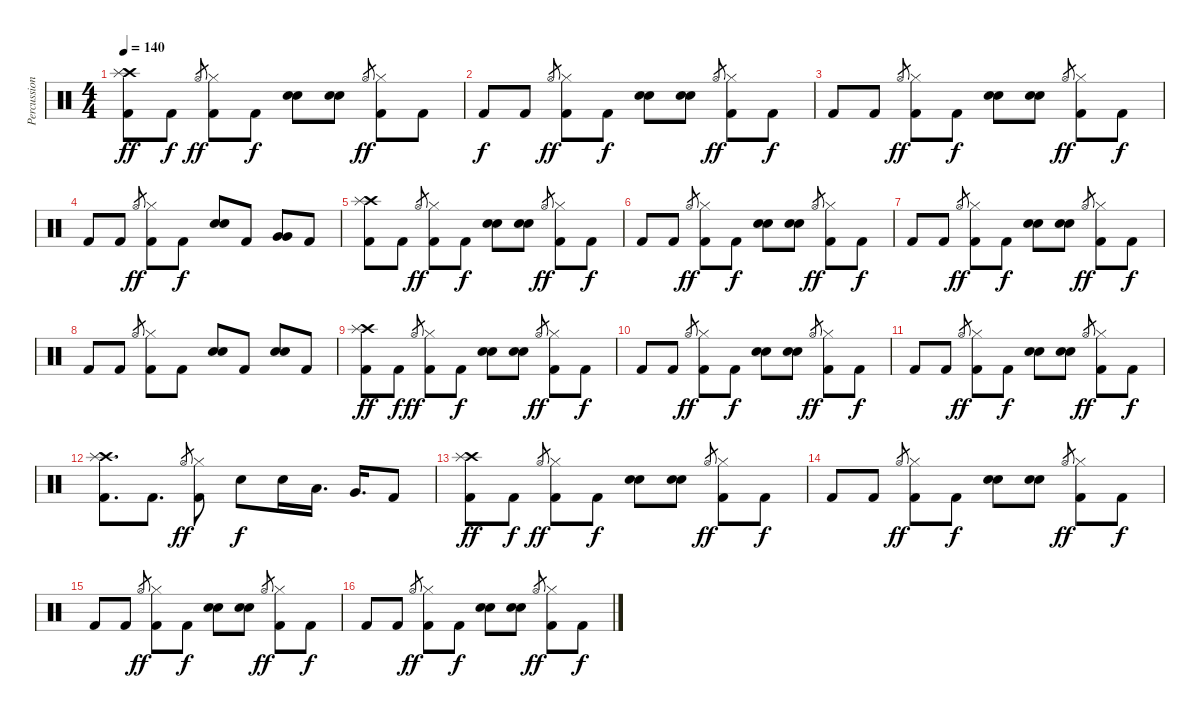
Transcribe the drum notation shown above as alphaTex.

\track ("Percussion" "Percussion") {instrument percussion}
\staff {score}
\articulation defaults
\ts (4 4)
\tempo 140
\clef neutral
\ks c
("Crash high (hit)" "Splash (hit)" "Kick (hit) 2").8{dy ff} "Kick (hit) 2".8{dy f} "Hi-Hat (open)".8{gr dy ff} ("Hi-Hat (closed)" "Kick (hit) 2").8 "Kick (hit) 2".8{dy f} ("Electric Snare (hit)" "Electric Snare (hit)").8 ("Electric Snare (hit)" "Electric Snare (hit)").8 "Hi-Hat (open)".8{gr dy ff} ("Hi-Hat (closed)" "Kick (hit) 2").8 "Kick (hit) 2".8 |
"Kick (hit) 2".8{dy f} "Kick (hit) 2".8 "Hi-Hat (open)".8{gr dy ff} ("Hi-Hat (closed)" "Kick (hit) 2").8 "Kick (hit) 2".8{dy f} ("Electric Snare (hit)" "Electric Snare (hit)").8 ("Electric Snare (hit)" "Electric Snare (hit)").8 "Hi-Hat (open)".8{gr dy ff} ("Hi-Hat (closed)" "Kick (hit) 2").8 "Kick (hit) 2".8{dy f} |
"Kick (hit) 2".8 "Kick (hit) 2".8 "Hi-Hat (open)".8{gr dy ff} ("Hi-Hat (closed)" "Kick (hit) 2").8 "Kick (hit) 2".8{dy f} ("Electric Snare (hit)" "Electric Snare (hit)").8 ("Electric Snare (hit)" "Electric Snare (hit)").8 "Hi-Hat (open)".8{gr dy ff} ("Hi-Hat (closed)" "Kick (hit) 2").8 "Kick (hit) 2".8{dy f} |
"Kick (hit) 2".8 "Kick (hit) 2".8 "Hi-Hat (open)".8{gr dy ff} ("Hi-Hat (closed)" "Kick (hit) 2").8 "Kick (hit) 2".8{dy f} ("Electric Snare (hit)" "Electric Snare (hit)").8 "Kick (hit) 2".8 ("Very Low Tom (hit)" "Very Low Tom (hit)").8 "Kick (hit) 2".8 |
("Crash high (hit)" "Splash (hit)" "Kick (hit) 2").8 "Kick (hit) 2".8 "Hi-Hat (open)".8{gr dy ff} ("Hi-Hat (closed)" "Kick (hit) 2").8 "Kick (hit) 2".8{dy f} ("Electric Snare (hit)" "Electric Snare (hit)").8 ("Electric Snare (hit)" "Electric Snare (hit)").8 "Hi-Hat (open)".8{gr dy ff} ("Hi-Hat (closed)" "Kick (hit) 2").8 "Kick (hit) 2".8{dy f} |
"Kick (hit) 2".8 "Kick (hit) 2".8 "Hi-Hat (open)".8{gr dy ff} ("Hi-Hat (closed)" "Kick (hit) 2").8 "Kick (hit) 2".8{dy f} ("Electric Snare (hit)" "Electric Snare (hit)").8 ("Electric Snare (hit)" "Electric Snare (hit)").8 "Hi-Hat (open)".8{gr dy ff} ("Hi-Hat (closed)" "Kick (hit) 2").8 "Kick (hit) 2".8{dy f} |
"Kick (hit) 2".8 "Kick (hit) 2".8 "Hi-Hat (open)".8{gr dy ff} ("Hi-Hat (closed)" "Kick (hit) 2").8 "Kick (hit) 2".8{dy f} ("Electric Snare (hit)" "Electric Snare (hit)").8 ("Electric Snare (hit)" "Electric Snare (hit)").8 "Hi-Hat (open)".8{gr dy ff} ("Hi-Hat (closed)" "Kick (hit) 2").8 "Kick (hit) 2".8{dy f} |
"Kick (hit) 2".8 "Kick (hit) 2".8 "Hi-Hat (open)".8{gr} ("Hi-Hat (closed)" "Kick (hit) 2").8 "Kick (hit) 2".8 ("Electric Snare (hit)" "Electric Snare (hit)").8 "Kick (hit) 2".8 ("Electric Snare (hit)" "Electric Snare (hit)").8 "Kick (hit) 2".8 |
("Crash high (hit)" "Splash (hit)" "Kick (hit) 2").8{dy ff} "Kick (hit) 2".8{dy f} "Hi-Hat (open)".8{gr dy ff} ("Hi-Hat (closed)" "Kick (hit) 2").8 "Kick (hit) 2".8{dy f} ("Electric Snare (hit)" "Electric Snare (hit)").8 ("Electric Snare (hit)" "Electric Snare (hit)").8 "Hi-Hat (open)".8{gr dy ff} ("Hi-Hat (closed)" "Kick (hit) 2").8 "Kick (hit) 2".8{dy f} |
"Kick (hit) 2".8 "Kick (hit) 2".8 "Hi-Hat (open)".8{gr dy ff} ("Hi-Hat (closed)" "Kick (hit) 2").8 "Kick (hit) 2".8{dy f} ("Electric Snare (hit)" "Electric Snare (hit)").8 ("Electric Snare (hit)" "Electric Snare (hit)").8 "Hi-Hat (open)".8{gr dy ff} ("Hi-Hat (closed)" "Kick (hit) 2").8 "Kick (hit) 2".8{dy f} |
"Kick (hit) 2".8 "Kick (hit) 2".8 "Hi-Hat (open)".8{gr dy ff} ("Hi-Hat (closed)" "Kick (hit) 2").8 "Kick (hit) 2".8{dy f} ("Electric Snare (hit)" "Electric Snare (hit)").8 ("Electric Snare (hit)" "Electric Snare (hit)").8 "Hi-Hat (open)".8{gr dy ff} ("Hi-Hat (closed)" "Kick (hit) 2").8 "Kick (hit) 2".8{dy f} |
("Crash high (hit)" "Splash (hit)" "Kick (hit) 2").8{d} "Kick (hit) 2".8{d} "Hi-Hat (open)".8{gr dy ff} ("Hi-Hat (closed)" "Kick (hit) 2").8 "Electric Snare (hit)".8{dy f} "Electric Snare (hit)".16 "Low Tom (hit)".16{d} "Very Low Tom (hit)".16{d} "Kick (hit) 2".8 |
("Crash high (hit)" "Splash (hit)" "Kick (hit) 2").8{dy ff} "Kick (hit) 2".8{dy f} "Hi-Hat (open)".8{gr dy ff} ("Hi-Hat (closed)" "Kick (hit) 2").8 "Kick (hit) 2".8{dy f} ("Electric Snare (hit)" "Electric Snare (hit)").8 ("Electric Snare (hit)" "Electric Snare (hit)").8 "Hi-Hat (open)".8{gr dy ff} ("Hi-Hat (closed)" "Kick (hit) 2").8 "Kick (hit) 2".8{dy f} |
"Kick (hit) 2".8 "Kick (hit) 2".8 "Hi-Hat (open)".8{gr dy ff} ("Hi-Hat (closed)" "Kick (hit) 2").8 "Kick (hit) 2".8{dy f} ("Electric Snare (hit)" "Electric Snare (hit)").8 ("Electric Snare (hit)" "Electric Snare (hit)").8 "Hi-Hat (open)".8{gr dy ff} ("Hi-Hat (closed)" "Kick (hit) 2").8 "Kick (hit) 2".8{dy f} |
"Kick (hit) 2".8 "Kick (hit) 2".8 "Hi-Hat (open)".8{gr dy ff} ("Hi-Hat (closed)" "Kick (hit) 2").8 "Kick (hit) 2".8{dy f} ("Electric Snare (hit)" "Electric Snare (hit)").8 ("Electric Snare (hit)" "Electric Snare (hit)").8 "Hi-Hat (open)".8{gr dy ff} ("Hi-Hat (closed)" "Kick (hit) 2").8 "Kick (hit) 2".8{dy f} |
"Kick (hit) 2".8 "Kick (hit) 2".8 "Hi-Hat (open)".8{gr dy ff} ("Hi-Hat (closed)" "Kick (hit) 2").8 "Kick (hit) 2".8{dy f} ("Electric Snare (hit)" "Electric Snare (hit)").8 ("Electric Snare (hit)" "Electric Snare (hit)").8 "Hi-Hat (open)".8{gr dy ff} ("Hi-Hat (closed)" "Kick (hit) 2").8 "Kick (hit) 2".8{dy f}
